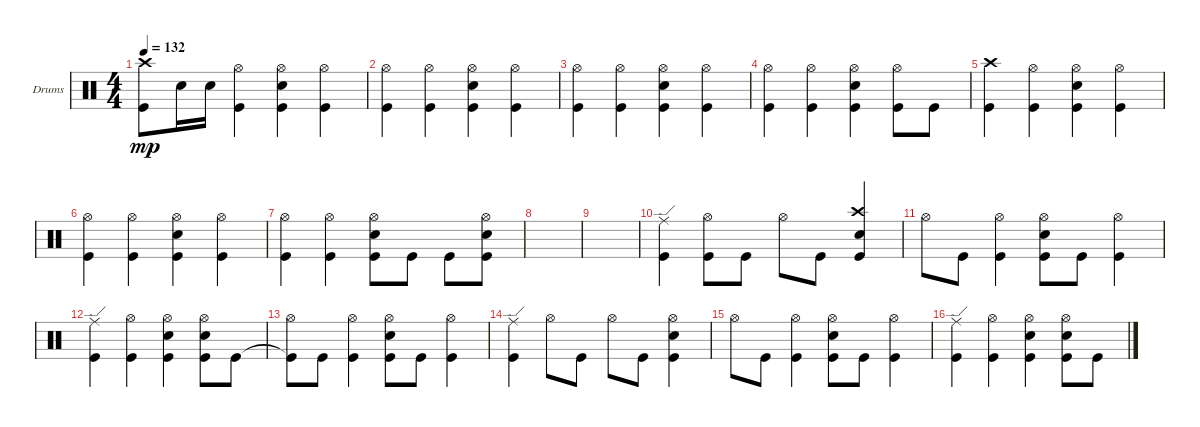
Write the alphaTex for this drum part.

\defaultSystemsLayout 4
\bracketExtendMode groupsimilarinstruments
\firstSystemTrackNameOrientation horizontal
\otherSystemsTrackNameOrientation horizontal
\track ("Steve Judd" "Drums") {instrument percussion}
\staff {score}
\articulation defaults
\ts (4 4)
\tempo 132
\clef neutral
\scale
0.333333
\ks c
("Kick (hit)" "Crash high (hit)").8{dy mp} "Snare (hit) 2".16 "Snare (hit) 2".16 ("Kick (hit)" "Hi-Hat (open)").4 ("Kick (hit)" "Hi-Hat (open)" "Snare (hit) 2").4 ("Kick (hit)" "Hi-Hat (open)").4 |
\scale
0.333333 ("Kick (hit)" "Hi-Hat (open)").4 ("Kick (hit)" "Hi-Hat (open)").4 ("Kick (hit)" "Hi-Hat (open)" "Snare (hit) 2").4 ("Kick (hit)" "Hi-Hat (open)").4 |
\scale
0.333333 ("Kick (hit)" "Hi-Hat (open)").4 ("Kick (hit)" "Hi-Hat (open)").4 ("Kick (hit)" "Hi-Hat (open)" "Snare (hit) 2").4 ("Kick (hit)" "Hi-Hat (open)").4 |
\scale
0.333333 ("Kick (hit)" "Hi-Hat (open)").4 ("Kick (hit)" "Hi-Hat (open)").4 ("Kick (hit)" "Hi-Hat (open)" "Snare (hit) 2").4 ("Kick (hit)" "Hi-Hat (open)").8 "Kick (hit)".8 |
\scale
0.333333 ("Kick (hit)" "Crash high (hit)").4 ("Kick (hit)" "Hi-Hat (open)").4 ("Kick (hit)" "Hi-Hat (open)" "Snare (hit) 2").4 ("Kick (hit)" "Hi-Hat (open)").4 |
\scale
0.333333 ("Kick (hit)" "Hi-Hat (open)").4 ("Kick (hit)" "Hi-Hat (open)").4 ("Kick (hit)" "Hi-Hat (open)" "Snare (hit) 2").4 ("Kick (hit)" "Hi-Hat (open)").4 |
\scale
0.333333 ("Kick (hit)" "Hi-Hat (open)").4 ("Kick (hit)" "Hi-Hat (open)").4 ("Kick (hit)" "Hi-Hat (open)" "Snare (hit) 2").8 "Kick (hit)".8 "Kick (hit)".8 ("Snare (hit) 2" "Kick (hit)" "Hi-Hat (open)").8 |
\scale
0.333333 |
\scale
0.333333 |
\scale
0.333333 ("Kick (hit)" "Ride (edge)").4 ("Kick (hit)" "Hi-Hat (open)").8 "Kick (hit)".8 "Hi-Hat (open)".8 "Kick (hit)".8 ("Snare (hit) 2" "Kick (hit)" "Crash high (hit)").4 |
\scale
0.333333 "Hi-Hat (open)".8 "Kick (hit)".8 ("Kick (hit)" "Hi-Hat (open)").4 ("Kick (hit)" "Hi-Hat (open)" "Snare (hit) 2").8 "Kick (hit)".8 ("Kick (hit)" "Hi-Hat (open)").4 |
\scale
0.333333 ("Kick (hit)" "Ride (edge)").4 ("Kick (hit)" "Hi-Hat (open)").4 ("Kick (hit)" "Hi-Hat (open)" "Snare (hit) 2").4 ("Kick (hit)" "Hi-Hat (open)" "Snare (hit) 2").8 "Kick (hit)".8 |
\scale
0.333333 ("Kick (hit)"{t} "Hi-Hat (open)").8 "Kick (hit)".8 ("Kick (hit)" "Hi-Hat (open)").4 ("Kick (hit)" "Hi-Hat (open)" "Snare (hit) 2").8 "Kick (hit)".8 ("Kick (hit)" "Hi-Hat (open)").4 |
\scale
0.333333 ("Kick (hit)" "Ride (edge)").4 "Hi-Hat (open)".8 "Kick (hit)".8 "Hi-Hat (open)".8 "Kick (hit)".8 ("Kick (hit)" "Hi-Hat (open)" "Snare (hit) 2").4 |
\scale
0.333333 "Hi-Hat (open)".8 "Kick (hit)".8 ("Kick (hit)" "Hi-Hat (open)").4 ("Hi-Hat (open)" "Kick (hit)" "Snare (hit) 2").8 "Kick (hit)".8 ("Kick (hit)" "Hi-Hat (open)").4 |
\scale
0.333333 ("Kick (hit)" "Ride (edge)").4 ("Kick (hit)" "Hi-Hat (open)").4 ("Kick (hit)" "Hi-Hat (open)" "Snare (hit) 2").4 ("Kick (hit)" "Hi-Hat (open)" "Snare (hit) 2").8 "Kick (hit)".8
